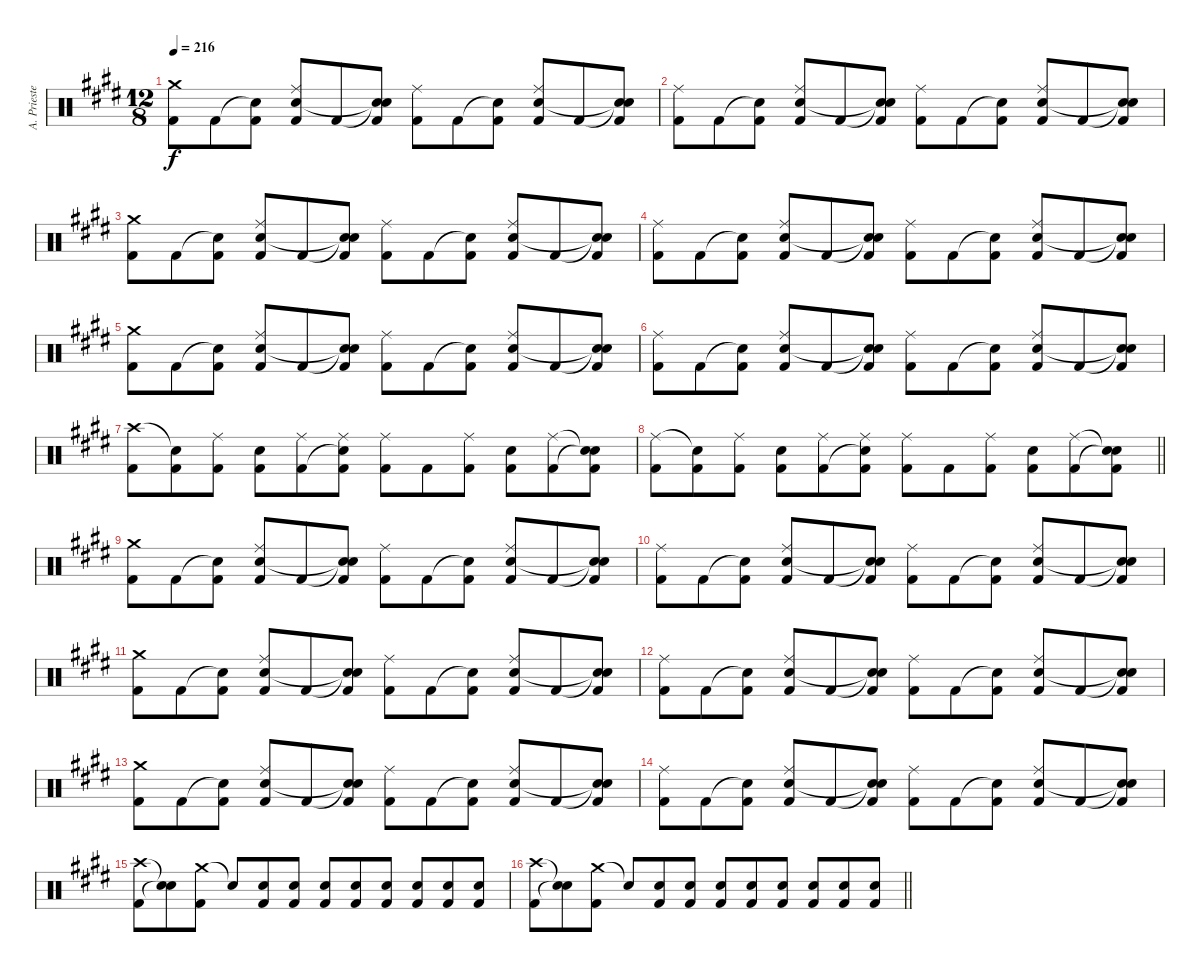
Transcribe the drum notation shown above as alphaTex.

\track ("A. Priester" "A. Prieste") {instrument percussion}
\staff {score}
\articulation defaults
\ts (12 8)
\tempo 216
\clef neutral
\ks e
("Crash medium (hit)" "Kick (hit) 2").8{dy f} "Kick (hit) 2".8 ("Snare (hit)"{t} "Kick (hit) 2").8 ("Ride (middle)" "Electric Snare (hit)" "Kick (hit) 2").8 "Kick (hit) 2".8 ("Snare (hit)"{t} "Snare (hit)"{t} "Kick (hit) 2").8 ("Ride (middle)" "Kick (hit) 2").8 "Kick (hit) 2".8 ("Snare (hit)"{t} "Kick (hit) 2").8 ("Ride (middle)" "Electric Snare (hit)" "Kick (hit) 2").8 "Kick (hit) 2".8 ("Snare (hit)"{t} "Snare (hit)"{t} "Kick (hit) 2").8 |
("Ride (middle)" "Kick (hit) 2").8 "Kick (hit) 2".8 ("Snare (hit)"{t} "Kick (hit) 2").8 ("Ride (middle)" "Electric Snare (hit)" "Kick (hit) 2").8 "Kick (hit) 2".8 ("Snare (hit)"{t} "Snare (hit)"{t} "Kick (hit) 2").8 ("Ride (middle)" "Kick (hit) 2").8 "Kick (hit) 2".8 ("Snare (hit)"{t} "Kick (hit) 2").8 ("Ride (middle)" "Electric Snare (hit)" "Kick (hit) 2").8 "Kick (hit) 2".8 ("Snare (hit)"{t} "Snare (hit)"{t} "Kick (hit) 2").8 |
("Crash medium (hit)" "Kick (hit) 2").8 "Kick (hit) 2".8 ("Snare (hit)"{t} "Kick (hit) 2").8 ("Ride (middle)" "Electric Snare (hit)" "Kick (hit) 2").8 "Kick (hit) 2".8 ("Snare (hit)"{t} "Snare (hit)"{t} "Kick (hit) 2").8 ("Ride (middle)" "Kick (hit) 2").8 "Kick (hit) 2".8 ("Snare (hit)"{t} "Kick (hit) 2").8 ("Ride (middle)" "Electric Snare (hit)" "Kick (hit) 2").8 "Kick (hit) 2".8 ("Snare (hit)"{t} "Snare (hit)"{t} "Kick (hit) 2").8 |
("Ride (middle)" "Kick (hit) 2").8 "Kick (hit) 2".8 ("Snare (hit)"{t} "Kick (hit) 2").8 ("Ride (middle)" "Electric Snare (hit)" "Kick (hit) 2").8 "Kick (hit) 2".8 ("Snare (hit)"{t} "Snare (hit)"{t} "Kick (hit) 2").8 ("Ride (middle)" "Kick (hit) 2").8 "Kick (hit) 2".8 ("Snare (hit)"{t} "Kick (hit) 2").8 ("Ride (middle)" "Electric Snare (hit)" "Kick (hit) 2").8 "Kick (hit) 2".8 ("Snare (hit)"{t} "Snare (hit)"{t} "Kick (hit) 2").8 |
("Crash medium (hit)" "Kick (hit) 2").8 "Kick (hit) 2".8 ("Snare (hit)"{t} "Kick (hit) 2").8 ("Ride (middle)" "Electric Snare (hit)" "Kick (hit) 2").8 "Kick (hit) 2".8 ("Snare (hit)"{t} "Snare (hit)"{t} "Kick (hit) 2").8 ("Ride (middle)" "Kick (hit) 2").8 "Kick (hit) 2".8 ("Snare (hit)"{t} "Kick (hit) 2").8 ("Ride (middle)" "Electric Snare (hit)" "Kick (hit) 2").8 "Kick (hit) 2".8 ("Snare (hit)"{t} "Snare (hit)"{t} "Kick (hit) 2").8 |
("Ride (middle)" "Kick (hit) 2").8 "Kick (hit) 2".8 ("Snare (hit)"{t} "Kick (hit) 2").8 ("Ride (middle)" "Electric Snare (hit)" "Kick (hit) 2").8 "Kick (hit) 2".8 ("Snare (hit)"{t} "Snare (hit)"{t} "Kick (hit) 2").8 ("Ride (middle)" "Kick (hit) 2").8 "Kick (hit) 2".8 ("Snare (hit)"{t} "Kick (hit) 2").8 ("Ride (middle)" "Electric Snare (hit)" "Kick (hit) 2").8 "Kick (hit) 2".8 ("Snare (hit)"{t} "Snare (hit)"{t} "Kick (hit) 2").8 |
("Crash high (hit)" "Kick (hit) 2").8 ("Snare (hit)"{t} "Kick (hit) 2").8 ("Ride (middle)" "Kick (hit) 2").8 ("Electric Snare (hit)" "Kick (hit) 2").8 ("Ride (middle)" "Kick (hit) 2").8 ("Ride (middle)" "Snare (hit)"{t} "Kick (hit) 2").8 ("Ride (middle)" "Kick (hit) 2").8 "Kick (hit) 2".8 ("Ride (middle)" "Kick (hit) 2").8 ("Electric Snare (hit)" "Kick (hit) 2").8 ("Ride (middle)" "Kick (hit) 2").8 ("Snare (hit)"{t} "Snare (hit)"{t} "Kick (hit) 2").8 |
\barLineRight lightlight
("Ride (middle)" "Kick (hit) 2").8 ("Snare (hit)"{t} "Kick (hit) 2").8 ("Ride (middle)" "Kick (hit) 2").8 ("Electric Snare (hit)" "Kick (hit) 2").8 ("Ride (middle)" "Kick (hit) 2").8 ("Ride (middle)" "Snare (hit)"{t} "Kick (hit) 2").8 ("Ride (middle)" "Kick (hit) 2").8 "Kick (hit) 2".8 ("Ride (middle)" "Kick (hit) 2").8 ("Electric Snare (hit)" "Kick (hit) 2").8 ("Ride (middle)" "Kick (hit) 2").8 ("Snare (hit)"{t} "Snare (hit)"{t} "Kick (hit) 2").8 |
("Crash medium (hit)" "Kick (hit) 2").8 "Kick (hit) 2".8 ("Snare (hit)"{t} "Kick (hit) 2").8 ("Ride (middle)" "Electric Snare (hit)" "Kick (hit) 2").8 "Kick (hit) 2".8 ("Snare (hit)"{t} "Snare (hit)"{t} "Kick (hit) 2").8 ("Ride (middle)" "Kick (hit) 2").8 "Kick (hit) 2".8 ("Snare (hit)"{t} "Kick (hit) 2").8 ("Ride (middle)" "Electric Snare (hit)" "Kick (hit) 2").8 "Kick (hit) 2".8 ("Snare (hit)"{t} "Snare (hit)"{t} "Kick (hit) 2").8 |
("Ride (middle)" "Kick (hit) 2").8 "Kick (hit) 2".8 ("Snare (hit)"{t} "Kick (hit) 2").8 ("Ride (middle)" "Electric Snare (hit)" "Kick (hit) 2").8 "Kick (hit) 2".8 ("Snare (hit)"{t} "Snare (hit)"{t} "Kick (hit) 2").8 ("Ride (middle)" "Kick (hit) 2").8 "Kick (hit) 2".8 ("Snare (hit)"{t} "Kick (hit) 2").8 ("Ride (middle)" "Electric Snare (hit)" "Kick (hit) 2").8 "Kick (hit) 2".8 ("Snare (hit)"{t} "Snare (hit)"{t} "Kick (hit) 2").8 |
("Crash medium (hit)" "Kick (hit) 2").8 "Kick (hit) 2".8 ("Snare (hit)"{t} "Kick (hit) 2").8 ("Ride (middle)" "Electric Snare (hit)" "Kick (hit) 2").8 "Kick (hit) 2".8 ("Snare (hit)"{t} "Snare (hit)"{t} "Kick (hit) 2").8 ("Ride (middle)" "Kick (hit) 2").8 "Kick (hit) 2".8 ("Snare (hit)"{t} "Kick (hit) 2").8 ("Ride (middle)" "Electric Snare (hit)" "Kick (hit) 2").8 "Kick (hit) 2".8 ("Snare (hit)"{t} "Snare (hit)"{t} "Kick (hit) 2").8 |
("Ride (middle)" "Kick (hit) 2").8 "Kick (hit) 2".8 ("Snare (hit)"{t} "Kick (hit) 2").8 ("Ride (middle)" "Electric Snare (hit)" "Kick (hit) 2").8 "Kick (hit) 2".8 ("Snare (hit)"{t} "Snare (hit)"{t} "Kick (hit) 2").8 ("Ride (middle)" "Kick (hit) 2").8 "Kick (hit) 2".8 ("Snare (hit)"{t} "Kick (hit) 2").8 ("Ride (middle)" "Electric Snare (hit)" "Kick (hit) 2").8 "Kick (hit) 2".8 ("Snare (hit)"{t} "Snare (hit)"{t} "Kick (hit) 2").8 |
("Crash medium (hit)" "Kick (hit) 2").8 "Kick (hit) 2".8 ("Snare (hit)"{t} "Kick (hit) 2").8 ("Ride (middle)" "Electric Snare (hit)" "Kick (hit) 2").8 "Kick (hit) 2".8 ("Snare (hit)"{t} "Snare (hit)"{t} "Kick (hit) 2").8 ("Ride (middle)" "Kick (hit) 2").8 "Kick (hit) 2".8 ("Snare (hit)"{t} "Kick (hit) 2").8 ("Ride (middle)" "Electric Snare (hit)" "Kick (hit) 2").8 "Kick (hit) 2".8 ("Snare (hit)"{t} "Snare (hit)"{t} "Kick (hit) 2").8 |
("Ride (middle)" "Kick (hit) 2").8 "Kick (hit) 2".8 ("Snare (hit)"{t} "Kick (hit) 2").8 ("Ride (middle)" "Electric Snare (hit)" "Kick (hit) 2").8 "Kick (hit) 2".8 ("Snare (hit)"{t} "Snare (hit)"{t} "Kick (hit) 2").8 ("Ride (middle)" "Kick (hit) 2").8 "Kick (hit) 2".8 ("Snare (hit)"{t} "Kick (hit) 2").8 ("Ride (middle)" "Electric Snare (hit)" "Kick (hit) 2").8 "Kick (hit) 2".8 ("Snare (hit)"{t} "Snare (hit)"{t} "Kick (hit) 2").8 |
("Crash high (hit)" "Kick (hit) 2").8 ("Snare (hit)"{t} "Snare (hit)"{t}).8 ("Crash medium (hit)" "Kick (hit) 2").8 "Snare (hit)"{t}.8 ("Electric Snare (hit)" "Kick (hit) 2").8 ("Electric Snare (hit)" "Kick (hit) 2").8 ("Electric Snare (hit)" "Kick (hit) 2").8 ("Electric Snare (hit)" "Kick (hit) 2").8 ("Electric Snare (hit)" "Kick (hit) 2").8 ("Electric Snare (hit)" "Kick (hit) 2").8 ("Electric Snare (hit)" "Kick (hit) 2").8 ("Electric Snare (hit)" "Kick (hit) 2").8 |
\barLineRight lightlight
("Crash high (hit)" "Kick (hit) 2").8 ("Snare (hit)"{t} "Snare (hit)"{t}).8 ("Crash medium (hit)" "Kick (hit) 2").8 "Snare (hit)"{t}.8 ("Electric Snare (hit)" "Kick (hit) 2").8 ("Electric Snare (hit)" "Kick (hit) 2").8 ("Electric Snare (hit)" "Kick (hit) 2").8 ("Electric Snare (hit)" "Kick (hit) 2").8 ("Electric Snare (hit)" "Kick (hit) 2").8 ("Electric Snare (hit)" "Kick (hit) 2").8 ("Electric Snare (hit)" "Kick (hit) 2").8 ("Electric Snare (hit)" "Kick (hit) 2").8
